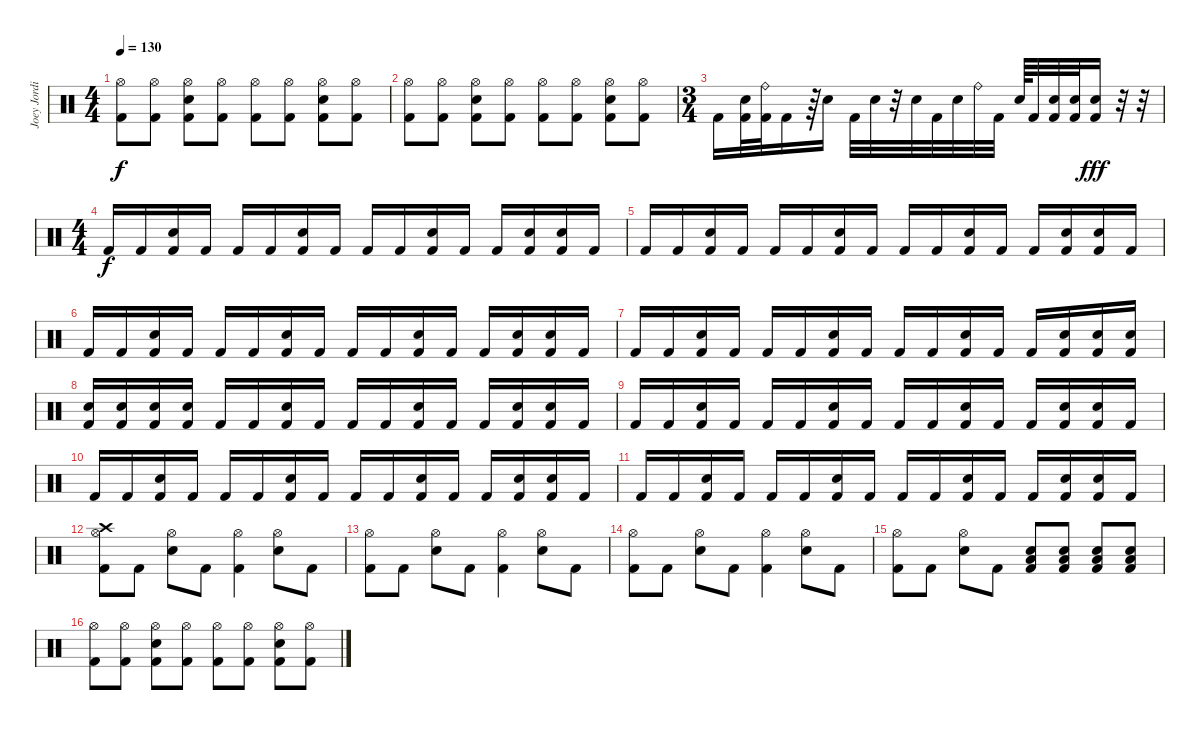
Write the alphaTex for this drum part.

\track ("Joey Jordison" "Joey Jordi") {instrument percussion}
\staff {score}
\articulation defaults
\ts (4 4)
\tempo 130
\clef neutral
\ks c
("Hi-Hat (open)" "Kick (hit) 2").8{dy f} ("Hi-Hat (open)" "Kick (hit) 2").8 ("Hi-Hat (open)" "Electric Snare (hit)" "Kick (hit) 2").8 ("Hi-Hat (open)" "Kick (hit) 2").8 ("Hi-Hat (open)" "Kick (hit) 2").8 ("Hi-Hat (open)" "Kick (hit) 2").8 ("Hi-Hat (open)" "Electric Snare (hit)" "Kick (hit) 2").8 ("Hi-Hat (open)" "Kick (hit) 2").8 |
("Hi-Hat (open)" "Kick (hit) 2").8 ("Hi-Hat (open)" "Kick (hit) 2").8 ("Hi-Hat (open)" "Electric Snare (hit)" "Kick (hit) 2").8 ("Hi-Hat (open)" "Kick (hit) 2").8 ("Hi-Hat (open)" "Kick (hit) 2").8 ("Hi-Hat (open)" "Kick (hit) 2").8 ("Hi-Hat (open)" "Electric Snare (hit)" "Kick (hit) 2").8 ("Hi-Hat (open)" "Kick (hit) 2").8 |
\ts (3 4)
"Kick (hit) 2".16 ("Snare (hit)" "Kick (hit) 2").32 ("Ride (bell)" "Kick (hit) 2").32 "Kick (hit) 2".16 r.64 "Electric Snare (hit)".16 "Kick (hit) 2".32 "Snare (hit)".32 r.32 "Electric Snare (hit)".32 "Kick (hit) 2".32 "Electric Snare (hit)".32 "Ride (bell)".32 "Kick (hit) 2".32 "Snare (hit)".64 "Kick (hit) 2".32 ("Snare (hit)" "Kick (hit) 2").32 ("Snare (hit)" "Kick (hit) 2").32 ("Electric Snare (hit)" "Kick (hit) 2").16{dy fff} r.32 r.32 |
\ts (4 4)
"Kick (hit) 2".16{dy f} "Kick (hit) 2".16 ("Electric Snare (hit)" "Kick (hit) 2").16 "Kick (hit) 2".16 "Kick (hit) 2".16 "Kick (hit) 2".16 ("Electric Snare (hit)" "Kick (hit) 2").16 "Kick (hit) 2".16 "Kick (hit) 2".16 "Kick (hit) 2".16 ("Electric Snare (hit)" "Kick (hit) 2").16 "Kick (hit) 2".16 "Kick (hit) 2".16 ("Snare (hit)" "Kick (hit) 2").16 ("Electric Snare (hit)" "Kick (hit) 2").16 "Kick (hit) 2".16 |
"Kick (hit) 2".16 "Kick (hit) 2".16 ("Electric Snare (hit)" "Kick (hit) 2").16 "Kick (hit) 2".16 "Kick (hit) 2".16 "Kick (hit) 2".16 ("Electric Snare (hit)" "Kick (hit) 2").16 "Kick (hit) 2".16 "Kick (hit) 2".16 "Kick (hit) 2".16 ("Electric Snare (hit)" "Kick (hit) 2").16 "Kick (hit) 2".16 "Kick (hit) 2".16 ("Snare (hit)" "Kick (hit) 2").16 ("Electric Snare (hit)" "Kick (hit) 2").16 "Kick (hit) 2".16 |
"Kick (hit) 2".16 "Kick (hit) 2".16 ("Electric Snare (hit)" "Kick (hit) 2").16 "Kick (hit) 2".16 "Kick (hit) 2".16 "Kick (hit) 2".16 ("Electric Snare (hit)" "Kick (hit) 2").16 "Kick (hit) 2".16 "Kick (hit) 2".16 "Kick (hit) 2".16 ("Electric Snare (hit)" "Kick (hit) 2").16 "Kick (hit) 2".16 "Kick (hit) 2".16 ("Snare (hit)" "Kick (hit) 2").16 ("Electric Snare (hit)" "Kick (hit) 2").16 "Kick (hit) 2".16 |
"Kick (hit) 2".16 "Kick (hit) 2".16 ("Electric Snare (hit)" "Kick (hit) 2").16 "Kick (hit) 2".16 "Kick (hit) 2".16 "Kick (hit) 2".16 ("Electric Snare (hit)" "Kick (hit) 2").16 "Kick (hit) 2".16 "Kick (hit) 2".16 "Kick (hit) 2".16 ("Electric Snare (hit)" "Kick (hit) 2").16 "Kick (hit) 2".16 "Kick (hit) 2".16 ("Snare (hit)" "Kick (hit) 2").16 ("Electric Snare (hit)" "Kick (hit) 2").16 ("Electric Snare (hit)" "Kick (hit) 2").16 |
("Snare (hit)" "Kick (hit) 2").16 ("Snare (hit)" "Kick (hit) 2").16 ("Electric Snare (hit)" "Kick (hit) 2").16 ("Snare (hit)" "Kick (hit) 2").16 "Kick (hit) 2".16 "Kick (hit) 2".16 ("Electric Snare (hit)" "Kick (hit) 2").16 "Kick (hit) 2".16 "Kick (hit) 2".16 "Kick (hit) 2".16 ("Electric Snare (hit)" "Kick (hit) 2").16 "Kick (hit) 2".16 "Kick (hit) 2".16 ("Snare (hit)" "Kick (hit) 2").16 ("Electric Snare (hit)" "Kick (hit) 2").16 "Kick (hit) 2".16 |
"Kick (hit) 2".16 "Kick (hit) 2".16 ("Electric Snare (hit)" "Kick (hit) 2").16 "Kick (hit) 2".16 "Kick (hit) 2".16 "Kick (hit) 2".16 ("Electric Snare (hit)" "Kick (hit) 2").16 "Kick (hit) 2".16 "Kick (hit) 2".16 "Kick (hit) 2".16 ("Electric Snare (hit)" "Kick (hit) 2").16 "Kick (hit) 2".16 "Kick (hit) 2".16 ("Snare (hit)" "Kick (hit) 2").16 ("Electric Snare (hit)" "Kick (hit) 2").16 "Kick (hit) 2".16 |
"Kick (hit) 2".16 "Kick (hit) 2".16 ("Electric Snare (hit)" "Kick (hit) 2").16 "Kick (hit) 2".16 "Kick (hit) 2".16 "Kick (hit) 2".16 ("Electric Snare (hit)" "Kick (hit) 2").16 "Kick (hit) 2".16 "Kick (hit) 2".16 "Kick (hit) 2".16 ("Electric Snare (hit)" "Kick (hit) 2").16 "Kick (hit) 2".16 "Kick (hit) 2".16 ("Snare (hit)" "Kick (hit) 2").16 ("Electric Snare (hit)" "Kick (hit) 2").16 "Kick (hit) 2".16 |
"Kick (hit) 2".16 "Kick (hit) 2".16 ("Electric Snare (hit)" "Kick (hit) 2").16 "Kick (hit) 2".16 "Kick (hit) 2".16 "Kick (hit) 2".16 ("Electric Snare (hit)" "Kick (hit) 2").16 "Kick (hit) 2".16 "Kick (hit) 2".16 "Kick (hit) 2".16 ("Electric Snare (hit)" "Kick (hit) 2").16 "Kick (hit) 2".16 "Kick (hit) 2".16 ("Snare (hit)" "Kick (hit) 2").16 ("Electric Snare (hit)" "Kick (hit) 2").16 "Kick (hit) 2".16 |
("Hi-Hat (open)" "Crash high (hit)" "Kick (hit) 2").8 "Kick (hit) 2".8 ("Hi-Hat (open)" "Electric Snare (hit)").8 "Kick (hit) 2".8 ("Hi-Hat (open)" "Kick (hit) 2").4 ("Hi-Hat (open)" "Electric Snare (hit)").8 "Kick (hit) 2".8 |
("Hi-Hat (open)" "Kick (hit) 2").8 "Kick (hit) 2".8 ("Hi-Hat (open)" "Electric Snare (hit)").8 "Kick (hit) 2".8 ("Hi-Hat (open)" "Kick (hit) 2").4 ("Hi-Hat (open)" "Electric Snare (hit)").8 "Kick (hit) 2".8 |
("Hi-Hat (open)" "Kick (hit) 2").8 "Kick (hit) 2".8 ("Hi-Hat (open)" "Electric Snare (hit)").8 "Kick (hit) 2".8 ("Hi-Hat (open)" "Kick (hit) 2").4 ("Hi-Hat (open)" "Electric Snare (hit)").8 "Kick (hit) 2".8 |
("Hi-Hat (open)" "Kick (hit) 2").8 "Kick (hit) 2".8 ("Hi-Hat (open)" "Electric Snare (hit)").8 "Kick (hit) 2".8 ("Kick (hit) 2" "Electric Snare (hit)" "Low Floor Tom (hit)").8 ("Kick (hit) 2" "Electric Snare (hit)" "Low Floor Tom (hit)").8 ("Kick (hit) 2" "Electric Snare (hit)" "Low Floor Tom (hit)").8 ("Kick (hit) 2" "Electric Snare (hit)" "Low Floor Tom (hit)").8 |
("Hi-Hat (open)" "Kick (hit) 2").8 ("Hi-Hat (open)" "Kick (hit) 2").8 ("Hi-Hat (open)" "Electric Snare (hit)" "Kick (hit) 2").8 ("Hi-Hat (open)" "Kick (hit) 2").8 ("Hi-Hat (open)" "Kick (hit) 2").8 ("Hi-Hat (open)" "Kick (hit) 2").8 ("Hi-Hat (open)" "Electric Snare (hit)" "Kick (hit) 2").8 ("Hi-Hat (open)" "Kick (hit) 2").8
